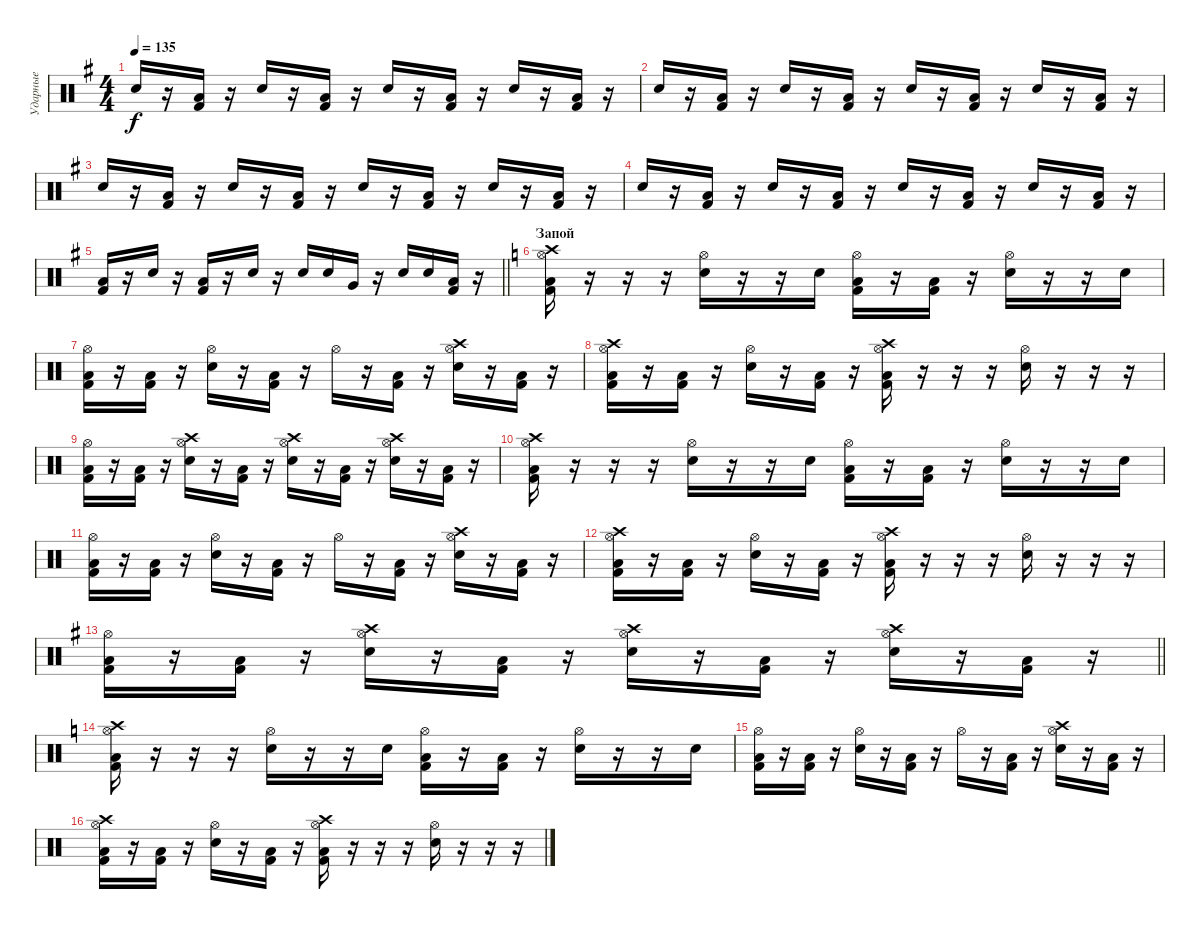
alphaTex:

\track ("Ударные" "Ударные") {instrument percussion}
\staff {score}
\articulation defaults
\ts (4 4)
\tempo 135
\clef neutral
\ks eminor "Electric Snare (hit)".16{dy f}
r.16 ("Low Floor Tom (hit)" "Kick (hit) 2").16 r.16 "Electric Snare (hit)".16 r.16 ("Low Floor Tom (hit)" "Kick (hit) 2").16 r.16 "Electric Snare (hit)".16 r.16 ("Low Floor Tom (hit)" "Kick (hit) 2").16 r.16 "Electric Snare (hit)".16 r.16 ("Low Floor Tom (hit)" "Kick (hit) 2").16 r.16 |
"Electric Snare (hit)".16 r.16 ("Low Floor Tom (hit)" "Kick (hit) 2").16 r.16 "Electric Snare (hit)".16 r.16 ("Low Floor Tom (hit)" "Kick (hit) 2").16 r.16 "Electric Snare (hit)".16 r.16 ("Low Floor Tom (hit)" "Kick (hit) 2").16 r.16 "Electric Snare (hit)".16 r.16 ("Low Floor Tom (hit)" "Kick (hit) 2").16 r.16 |
"Electric Snare (hit)".16 r.16 ("Low Floor Tom (hit)" "Kick (hit) 2").16 r.16 "Electric Snare (hit)".16 r.16 ("Low Floor Tom (hit)" "Kick (hit) 2").16 r.16 "Electric Snare (hit)".16 r.16 ("Low Floor Tom (hit)" "Kick (hit) 2").16 r.16 "Electric Snare (hit)".16 r.16 ("Low Floor Tom (hit)" "Kick (hit) 2").16 r.16 |
"Electric Snare (hit)".16 r.16 ("Low Floor Tom (hit)" "Kick (hit) 2").16 r.16 "Electric Snare (hit)".16 r.16 ("Low Floor Tom (hit)" "Kick (hit) 2").16 r.16 "Electric Snare (hit)".16 r.16 ("Low Floor Tom (hit)" "Kick (hit) 2").16 r.16 "Electric Snare (hit)".16 r.16 ("Low Floor Tom (hit)" "Kick (hit) 2").16 r.16 |
\barLineRight lightlight
("Low Floor Tom (hit)" "Kick (hit) 2").16 r.16 "Electric Snare (hit)".16 r.16 ("Low Floor Tom (hit)" "Kick (hit) 2").16 r.16 "Electric Snare (hit)".16 r.16 "Electric Snare (hit)".16 "Electric Snare (hit)".16 "Very Low Tom (hit)".16 r.16 "Electric Snare (hit)".16 "Electric Snare (hit)".16 ("Low Floor Tom (hit)" "Kick (hit) 2").16 r.16 |
\section ("" "Запой")
\ks c
("Crash high (hit)" "Hi-Hat (open)" "Low Floor Tom (hit)" "Kick (hit) 2").16 r.16 r.16 r.16 ("Hi-Hat (open)" "Electric Snare (hit)").16 r.16 r.16 "Electric Snare (hit)".16 ("Hi-Hat (open)" "Low Floor Tom (hit)" "Kick (hit) 2").16 r.16 ("Low Floor Tom (hit)" "Kick (hit) 2").16 r.16 ("Hi-Hat (open)" "Electric Snare (hit)").16 r.16 r.16 "Electric Snare (hit)".16 |
("Hi-Hat (open)" "Low Floor Tom (hit)" "Kick (hit) 2").16 r.16 ("Low Floor Tom (hit)" "Kick (hit) 2").16 r.16 ("Hi-Hat (open)" "Electric Snare (hit)").16 r.16 ("Low Floor Tom (hit)" "Kick (hit) 2").16 r.16 "Hi-Hat (open)".16 r.16 ("Low Floor Tom (hit)" "Kick (hit) 2").16 r.16 ("Crash high (hit)" "Hi-Hat (open)" "Electric Snare (hit)").16 r.16 ("Low Floor Tom (hit)" "Kick (hit) 2").16 r.16 |
("Crash high (hit)" "Hi-Hat (open)" "Low Floor Tom (hit)" "Kick (hit) 2").16 r.16 ("Low Floor Tom (hit)" "Kick (hit) 2").16 r.16 ("Hi-Hat (open)" "Electric Snare (hit)").16 r.16 ("Low Floor Tom (hit)" "Kick (hit) 2").16 r.16 ("Crash high (hit)" "Hi-Hat (open)" "Low Floor Tom (hit)" "Kick (hit) 2").16 r.16 r.16 r.16 ("Hi-Hat (open)" "Electric Snare (hit)").16 r.16 r.16 r.16 |
("Hi-Hat (open)" "Low Floor Tom (hit)" "Kick (hit) 2").16 r.16 ("Low Floor Tom (hit)" "Kick (hit) 2").16 r.16 ("Crash high (hit)" "Hi-Hat (open)" "Electric Snare (hit)").16 r.16 ("Low Floor Tom (hit)" "Kick (hit) 2").16 r.16 ("Crash high (hit)" "Hi-Hat (open)" "Electric Snare (hit)").16 r.16 ("Low Floor Tom (hit)" "Kick (hit) 2").16 r.16 ("Crash high (hit)" "Hi-Hat (open)" "Electric Snare (hit)").16 r.16 ("Low Floor Tom (hit)" "Kick (hit) 2").16 r.16 |
("Crash high (hit)" "Hi-Hat (open)" "Low Floor Tom (hit)" "Kick (hit) 2").16 r.16 r.16 r.16 ("Hi-Hat (open)" "Electric Snare (hit)").16 r.16 r.16 "Electric Snare (hit)".16 ("Hi-Hat (open)" "Low Floor Tom (hit)" "Kick (hit) 2").16 r.16 ("Low Floor Tom (hit)" "Kick (hit) 2").16 r.16 ("Hi-Hat (open)" "Electric Snare (hit)").16 r.16 r.16 "Electric Snare (hit)".16 |
("Hi-Hat (open)" "Low Floor Tom (hit)" "Kick (hit) 2").16 r.16 ("Low Floor Tom (hit)" "Kick (hit) 2").16 r.16 ("Hi-Hat (open)" "Electric Snare (hit)").16 r.16 ("Low Floor Tom (hit)" "Kick (hit) 2").16 r.16 "Hi-Hat (open)".16 r.16 ("Low Floor Tom (hit)" "Kick (hit) 2").16 r.16 ("Crash high (hit)" "Hi-Hat (open)" "Electric Snare (hit)").16 r.16 ("Low Floor Tom (hit)" "Kick (hit) 2").16 r.16 |
("Crash high (hit)" "Hi-Hat (open)" "Low Floor Tom (hit)" "Kick (hit) 2").16 r.16 ("Low Floor Tom (hit)" "Kick (hit) 2").16 r.16 ("Hi-Hat (open)" "Electric Snare (hit)").16 r.16 ("Low Floor Tom (hit)" "Kick (hit) 2").16 r.16 ("Crash high (hit)" "Hi-Hat (open)" "Low Floor Tom (hit)" "Kick (hit) 2").16 r.16 r.16 r.16 ("Hi-Hat (open)" "Electric Snare (hit)").16 r.16 r.16 r.16 |
\barLineRight lightlight
\ks eminor
("Hi-Hat (open)" "Low Floor Tom (hit)" "Kick (hit) 2").16 r.16 ("Low Floor Tom (hit)" "Kick (hit) 2").16 r.16 ("Crash high (hit)" "Hi-Hat (open)" "Electric Snare (hit)").16 r.16 ("Low Floor Tom (hit)" "Kick (hit) 2").16 r.16 ("Crash high (hit)" "Hi-Hat (open)" "Electric Snare (hit)").16 r.16 ("Low Floor Tom (hit)" "Kick (hit) 2").16 r.16 ("Crash high (hit)" "Hi-Hat (open)" "Electric Snare (hit)").16 r.16 ("Low Floor Tom (hit)" "Kick (hit) 2").16 r.16 |
\ks c
("Crash high (hit)" "Hi-Hat (open)" "Low Floor Tom (hit)" "Kick (hit) 2").16 r.16 r.16 r.16 ("Hi-Hat (open)" "Electric Snare (hit)").16 r.16 r.16 "Electric Snare (hit)".16 ("Hi-Hat (open)" "Low Floor Tom (hit)" "Kick (hit) 2").16 r.16 ("Low Floor Tom (hit)" "Kick (hit) 2").16 r.16 ("Hi-Hat (open)" "Electric Snare (hit)").16 r.16 r.16 "Electric Snare (hit)".16 |
("Hi-Hat (open)" "Low Floor Tom (hit)" "Kick (hit) 2").16 r.16 ("Low Floor Tom (hit)" "Kick (hit) 2").16 r.16 ("Hi-Hat (open)" "Electric Snare (hit)").16 r.16 ("Low Floor Tom (hit)" "Kick (hit) 2").16 r.16 "Hi-Hat (open)".16 r.16 ("Low Floor Tom (hit)" "Kick (hit) 2").16 r.16 ("Crash high (hit)" "Hi-Hat (open)" "Electric Snare (hit)").16 r.16 ("Low Floor Tom (hit)" "Kick (hit) 2").16 r.16 |
("Crash high (hit)" "Hi-Hat (open)" "Low Floor Tom (hit)" "Kick (hit) 2").16 r.16 ("Low Floor Tom (hit)" "Kick (hit) 2").16 r.16 ("Hi-Hat (open)" "Electric Snare (hit)").16 r.16 ("Low Floor Tom (hit)" "Kick (hit) 2").16 r.16 ("Crash high (hit)" "Hi-Hat (open)" "Low Floor Tom (hit)" "Kick (hit) 2").16 r.16 r.16 r.16 ("Hi-Hat (open)" "Electric Snare (hit)").16 r.16 r.16 r.16
